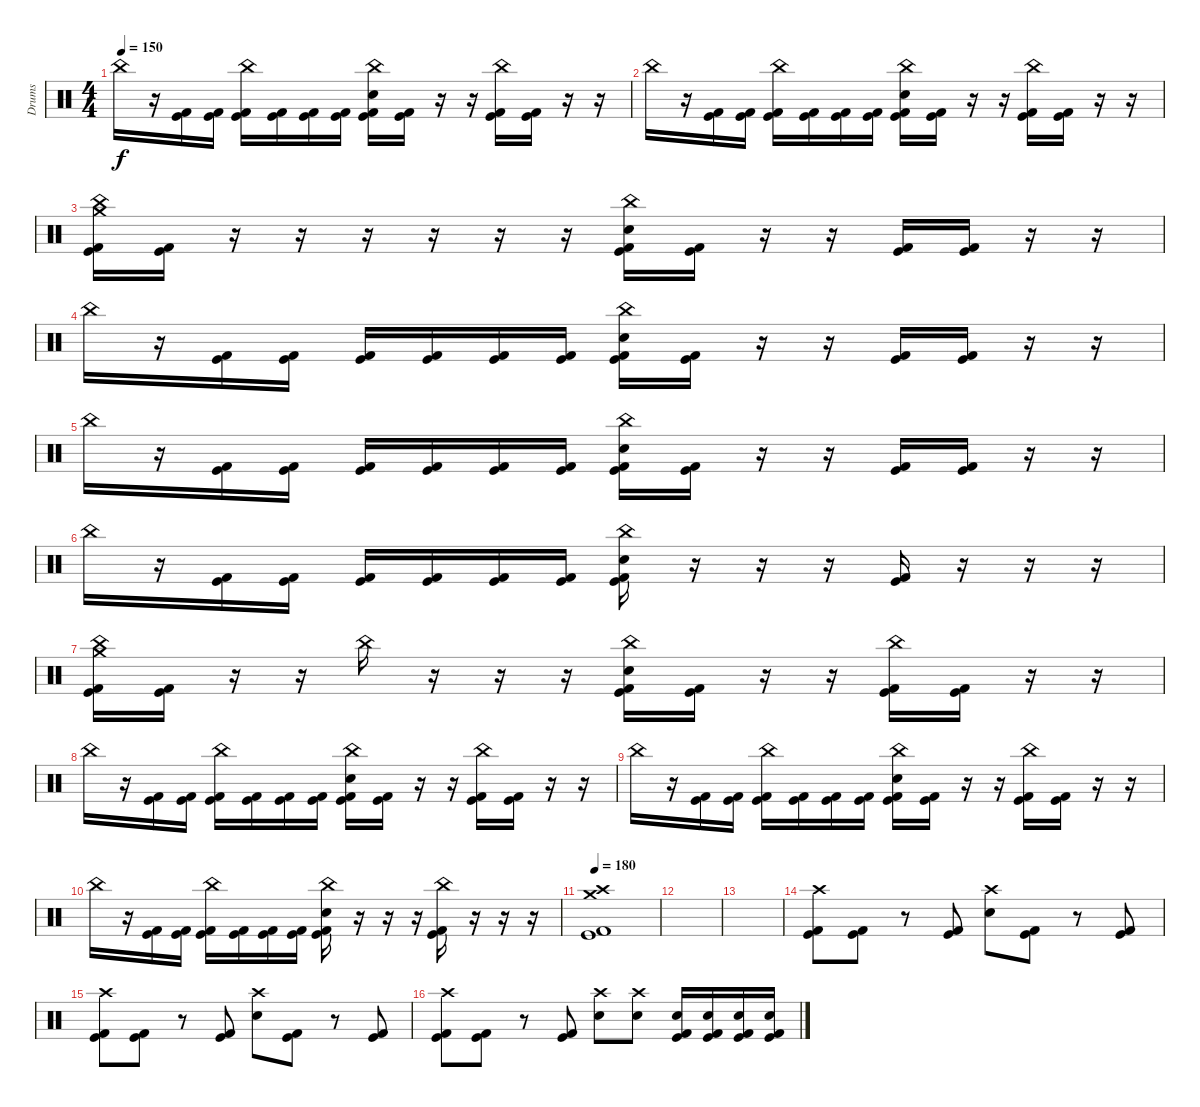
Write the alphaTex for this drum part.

\track ("Drums" "Drums") {instrument percussion}
\staff {score}
\articulation defaults
\ts (4 4)
\tempo 150
\clef neutral
\ks c "China (hit)".16{dy f}
r.16 ("Kick (hit)" "Kick (hit) 2").16 ("Kick (hit)" "Kick (hit) 2").16 ("China (hit)" "Kick (hit)" "Kick (hit) 2").16 ("Kick (hit)" "Kick (hit) 2").16 ("Kick (hit)" "Kick (hit) 2").16 ("Kick (hit)" "Kick (hit) 2").16 ("China (hit)" "Snare (hit) 2" "Kick (hit)" "Kick (hit) 2").16 ("Kick (hit)" "Kick (hit) 2").16 r.16 r.16 ("China (hit)" "Kick (hit)" "Kick (hit) 2").16 ("Kick (hit)" "Kick (hit) 2").16 r.16 r.16 |
"China (hit)".16 r.16 ("Kick (hit)" "Kick (hit) 2").16 ("Kick (hit)" "Kick (hit) 2").16 ("China (hit)" "Kick (hit)" "Kick (hit) 2").16 ("Kick (hit)" "Kick (hit) 2").16 ("Kick (hit)" "Kick (hit) 2").16 ("Kick (hit)" "Kick (hit) 2").16 ("China (hit)" "Snare (hit) 2" "Kick (hit)" "Kick (hit) 2").16 ("Kick (hit)" "Kick (hit) 2").16 r.16 r.16 ("China (hit)" "Kick (hit)" "Kick (hit) 2").16 ("Kick (hit)" "Kick (hit) 2").16 r.16 r.16 |
("Crash medium (hit)" "China (hit)" "Kick (hit)" "Kick (hit) 2").16 ("Kick (hit)" "Kick (hit) 2").16 r.16 r.16 r.16 r.16 r.16 r.16 ("China (hit)" "Snare (hit) 2" "Kick (hit)" "Kick (hit) 2").16 ("Kick (hit)" "Kick (hit) 2").16 r.16 r.16 ("Kick (hit)" "Kick (hit) 2").16 ("Kick (hit)" "Kick (hit) 2").16 r.16 r.16 |
"China (hit)".16 r.16 ("Kick (hit)" "Kick (hit) 2").16 ("Kick (hit)" "Kick (hit) 2").16 ("Kick (hit)" "Kick (hit) 2").16 ("Kick (hit)" "Kick (hit) 2").16 ("Kick (hit)" "Kick (hit) 2").16 ("Kick (hit)" "Kick (hit) 2").16 ("China (hit)" "Snare (hit) 2" "Kick (hit)" "Kick (hit) 2").16 ("Kick (hit)" "Kick (hit) 2").16 r.16 r.16 ("Kick (hit)" "Kick (hit) 2").16 ("Kick (hit)" "Kick (hit) 2").16 r.16 r.16 |
"China (hit)".16 r.16 ("Kick (hit)" "Kick (hit) 2").16 ("Kick (hit)" "Kick (hit) 2").16 ("Kick (hit)" "Kick (hit) 2").16 ("Kick (hit)" "Kick (hit) 2").16 ("Kick (hit)" "Kick (hit) 2").16 ("Kick (hit)" "Kick (hit) 2").16 ("China (hit)" "Snare (hit) 2" "Kick (hit)" "Kick (hit) 2").16 ("Kick (hit)" "Kick (hit) 2").16 r.16 r.16 ("Kick (hit)" "Kick (hit) 2").16 ("Kick (hit)" "Kick (hit) 2").16 r.16 r.16 |
"China (hit)".16 r.16 ("Kick (hit)" "Kick (hit) 2").16 ("Kick (hit)" "Kick (hit) 2").16 ("Kick (hit)" "Kick (hit) 2").16 ("Kick (hit)" "Kick (hit) 2").16 ("Kick (hit)" "Kick (hit) 2").16 ("Kick (hit)" "Kick (hit) 2").16 ("China (hit)" "Snare (hit) 2" "Kick (hit)" "Kick (hit) 2").16 r.16 r.16 r.16 ("Kick (hit)" "Kick (hit) 2").16 r.16 r.16 r.16 |
("Crash medium (hit)" "China (hit)" "Kick (hit)" "Kick (hit) 2").16 ("Kick (hit)" "Kick (hit) 2").16 r.16 r.16 "China (hit)".16 r.16 r.16 r.16 ("China (hit)" "Snare (hit) 2" "Kick (hit)" "Kick (hit) 2").16 ("Kick (hit)" "Kick (hit) 2").16 r.16 r.16 ("China (hit)" "Kick (hit)" "Kick (hit) 2").16 ("Kick (hit)" "Kick (hit) 2").16 r.16 r.16 |
"China (hit)".16 r.16 ("Kick (hit)" "Kick (hit) 2").16 ("Kick (hit)" "Kick (hit) 2").16 ("China (hit)" "Kick (hit)" "Kick (hit) 2").16 ("Kick (hit)" "Kick (hit) 2").16 ("Kick (hit)" "Kick (hit) 2").16 ("Kick (hit)" "Kick (hit) 2").16 ("China (hit)" "Snare (hit) 2" "Kick (hit)" "Kick (hit) 2").16 ("Kick (hit)" "Kick (hit) 2").16 r.16 r.16 ("China (hit)" "Kick (hit)" "Kick (hit) 2").16 ("Kick (hit)" "Kick (hit) 2").16 r.16 r.16 |
"China (hit)".16 r.16 ("Kick (hit)" "Kick (hit) 2").16 ("Kick (hit)" "Kick (hit) 2").16 ("China (hit)" "Kick (hit)" "Kick (hit) 2").16 ("Kick (hit)" "Kick (hit) 2").16 ("Kick (hit)" "Kick (hit) 2").16 ("Kick (hit)" "Kick (hit) 2").16 ("China (hit)" "Snare (hit) 2" "Kick (hit)" "Kick (hit) 2").16 ("Kick (hit)" "Kick (hit) 2").16 r.16 r.16 ("China (hit)" "Kick (hit)" "Kick (hit) 2").16 ("Kick (hit)" "Kick (hit) 2").16 r.16 r.16 |
"China (hit)".16 r.16 ("Kick (hit)" "Kick (hit) 2").16 ("Kick (hit)" "Kick (hit) 2").16 ("China (hit)" "Kick (hit)" "Kick (hit) 2").16 ("Kick (hit)" "Kick (hit) 2").16 ("Kick (hit)" "Kick (hit) 2").16 ("Kick (hit)" "Kick (hit) 2").16 ("China (hit)" "Snare (hit) 2" "Kick (hit)" "Kick (hit) 2").16 r.16 r.16 r.16 ("China (hit)" "Kick (hit)" "Kick (hit) 2").16 r.16 r.16 r.16 |
\tempo 180
("Crash medium (hit)" "Crash high (hit)" "Kick (hit)" "Kick (hit) 2").1 |
|
|
("Crash high (hit)" "Kick (hit)" "Kick (hit) 2").8 ("Kick (hit)" "Kick (hit) 2").8 r.8 ("Kick (hit)" "Kick (hit) 2").8 ("Crash high (hit)" "Snare (hit) 2").8 ("Kick (hit)" "Kick (hit) 2").8 r.8 ("Kick (hit)" "Kick (hit) 2").8 |
("Crash high (hit)" "Kick (hit)" "Kick (hit) 2").8 ("Kick (hit)" "Kick (hit) 2").8 r.8 ("Kick (hit)" "Kick (hit) 2").8 ("Crash high (hit)" "Snare (hit) 2").8 ("Kick (hit)" "Kick (hit) 2").8 r.8 ("Kick (hit)" "Kick (hit) 2").8 |
("Crash high (hit)" "Kick (hit)" "Kick (hit) 2").8 ("Kick (hit)" "Kick (hit) 2").8 r.8 ("Kick (hit)" "Kick (hit) 2").8 ("Crash high (hit)" "Snare (hit) 2").8 ("Crash high (hit)" "Snare (hit) 2").8 ("Snare (hit) 2" "Kick (hit)" "Kick (hit) 2").16 ("Snare (hit) 2" "Kick (hit)" "Kick (hit) 2").16 ("Snare (hit) 2" "Kick (hit)" "Kick (hit) 2").16 ("Snare (hit) 2" "Kick (hit)" "Kick (hit) 2").16
